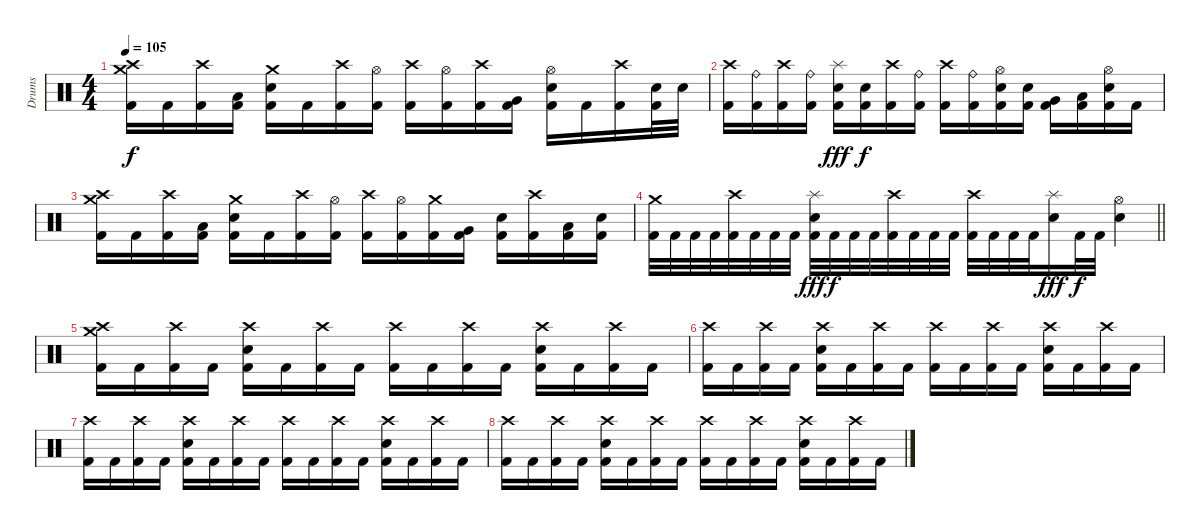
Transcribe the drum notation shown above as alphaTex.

\track ("Drums" "Drums") {instrument percussion}
\staff {score}
\articulation defaults
\ts (4 4)
\section ("" "")
\tempo 105
\clef neutral
\ks c
("Crash high (hit)" "Crash medium (hit)" "Kick (hit) 2").16{dy f} "Kick (hit) 2".16 ("Crash high (hit)" "Kick (hit) 2").16 ("Low Tom (hit)" "Kick (hit) 2").16 ("Crash medium (hit)" "Electric Snare (hit)" "Kick (hit) 2").16 "Kick (hit) 2".16 ("Crash high (hit)" "Kick (hit) 2").16 ("Hi-Hat (open)" "Kick (hit) 2").16 ("Crash high (hit)" "Kick (hit) 2").16 ("Hi-Hat (open)" "Kick (hit) 2").16 ("Crash high (hit)" "Kick (hit) 2").16 ("Very Low Tom (hit)" "Kick (hit) 2").16 ("Hi-Hat (open)" "Electric Snare (hit)" "Kick (hit) 2").16 "Kick (hit) 2".16 ("Crash high (hit)" "Kick (hit) 2").16 ("Electric Snare (hit)" "Kick (hit) 2").32 "Electric Snare (hit)".32 |
("Crash high (hit)" "Kick (hit) 2").16 ("Ride (bell)" "Kick (hit) 2").16 ("Crash high (hit)" "Kick (hit) 2").16 ("Ride (bell)" "Kick (hit) 2").16 ("Splash (hit)" "Electric Snare (hit)" "Kick (hit) 2").16{dy fff} ("Electric Snare (hit)" "Kick (hit) 2").16{dy f} ("Crash high (hit)" "Kick (hit) 2").16 ("Ride (bell)" "Kick (hit) 2").16 ("Crash high (hit)" "Kick (hit) 2").16 ("Ride (bell)" "Kick (hit) 2").16 ("Hi-Hat (open)" "Electric Snare (hit)" "Kick (hit) 2").16 ("Electric Snare (hit)" "Kick (hit) 2").16 ("Very Low Tom (hit)" "Kick (hit) 2").16 ("Low Floor Tom (hit)" "Kick (hit) 2").16 ("Hi-Hat (open)" "Electric Snare (hit)" "Kick (hit) 2").16 "Kick (hit) 2".16 |
("Crash high (hit)" "Crash medium (hit)" "Kick (hit) 2").16 "Kick (hit) 2".16 ("Crash high (hit)" "Kick (hit) 2").16 ("Low Tom (hit)" "Kick (hit) 2").16 ("Crash medium (hit)" "Electric Snare (hit)" "Kick (hit) 2").16 "Kick (hit) 2".16 ("Crash high (hit)" "Kick (hit) 2").16 ("Hi-Hat (open)" "Kick (hit) 2").16 ("Crash high (hit)" "Kick (hit) 2").16 ("Hi-Hat (open)" "Kick (hit) 2").16 ("Crash medium (hit)" "Kick (hit) 2").16 ("Very Low Tom (hit)" "Kick (hit) 2").16 ("Electric Snare (hit)" "Kick (hit) 2").16 ("Crash high (hit)" "Kick (hit) 2").16 ("Low Floor Tom (hit)" "Kick (hit) 2").16 ("Electric Snare (hit)" "Kick (hit) 2").16 |
\barLineRight lightlight
("Crash medium (hit)" "Kick (hit) 2").32 "Kick (hit) 2".32 "Kick (hit) 2".32 "Kick (hit) 2".32 ("Crash high (hit)" "Kick (hit) 2").32 "Kick (hit) 2".32 "Kick (hit) 2".32 "Kick (hit) 2".32 ("Splash (hit)" "Electric Snare (hit)" "Kick (hit) 2").32{dy fff} "Kick (hit) 2".32{dy f} "Kick (hit) 2".32 "Kick (hit) 2".32 ("Crash high (hit)" "Kick (hit) 2").32 "Kick (hit) 2".32 "Kick (hit) 2".32 "Kick (hit) 2".32 ("Crash high (hit)" "Kick (hit) 2").32 "Kick (hit) 2".32 "Kick (hit) 2".32 "Kick (hit) 2".32 ("Splash (hit)" "Electric Snare (hit)").16{dy fff} "Kick (hit) 2".32{dy f} "Kick (hit) 2".32 ("Hi-Hat (open)" "Electric Snare (hit)").4 |
\section ("" "")
("Crash high (hit)" "Crash medium (hit)" "Kick (hit) 2").16 "Kick (hit) 2".16 ("Crash high (hit)" "Kick (hit) 2").16 "Kick (hit) 2".16 ("Crash high (hit)" "Electric Snare (hit)" "Kick (hit) 2").16 "Kick (hit) 2".16 ("Crash high (hit)" "Kick (hit) 2").16 "Kick (hit) 2".16 ("Crash high (hit)" "Kick (hit) 2").16 "Kick (hit) 2".16 ("Crash high (hit)" "Kick (hit) 2").16 "Kick (hit) 2".16 ("Crash high (hit)" "Electric Snare (hit)" "Kick (hit) 2").16 "Kick (hit) 2".16 ("Crash high (hit)" "Kick (hit) 2").16 "Kick (hit) 2".16 |
("Crash high (hit)" "Kick (hit) 2").16 "Kick (hit) 2".16 ("Crash high (hit)" "Kick (hit) 2").16 "Kick (hit) 2".16 ("Crash high (hit)" "Electric Snare (hit)" "Kick (hit) 2").16 "Kick (hit) 2".16 ("Crash high (hit)" "Kick (hit) 2").16 "Kick (hit) 2".16 ("Crash high (hit)" "Kick (hit) 2").16 "Kick (hit) 2".16 ("Crash high (hit)" "Kick (hit) 2").16 "Kick (hit) 2".16 ("Crash high (hit)" "Electric Snare (hit)" "Kick (hit) 2").16 "Kick (hit) 2".16 ("Crash high (hit)" "Kick (hit) 2").16 "Kick (hit) 2".16 |
("Crash high (hit)" "Kick (hit) 2").16 "Kick (hit) 2".16 ("Crash high (hit)" "Kick (hit) 2").16 "Kick (hit) 2".16 ("Crash high (hit)" "Electric Snare (hit)" "Kick (hit) 2").16 "Kick (hit) 2".16 ("Crash high (hit)" "Kick (hit) 2").16 "Kick (hit) 2".16 ("Crash high (hit)" "Kick (hit) 2").16 "Kick (hit) 2".16 ("Crash high (hit)" "Kick (hit) 2").16 "Kick (hit) 2".16 ("Crash high (hit)" "Electric Snare (hit)" "Kick (hit) 2").16 "Kick (hit) 2".16 ("Crash high (hit)" "Kick (hit) 2").16 "Kick (hit) 2".16 |
("Crash high (hit)" "Kick (hit) 2").16 "Kick (hit) 2".16 ("Crash high (hit)" "Kick (hit) 2").16 "Kick (hit) 2".16 ("Crash high (hit)" "Electric Snare (hit)" "Kick (hit) 2").16 "Kick (hit) 2".16 ("Crash high (hit)" "Kick (hit) 2").16 "Kick (hit) 2".16 ("Crash high (hit)" "Kick (hit) 2").16 "Kick (hit) 2".16 ("Crash high (hit)" "Kick (hit) 2").16 "Kick (hit) 2".16 ("Crash high (hit)" "Electric Snare (hit)" "Kick (hit) 2").16 "Kick (hit) 2".16 ("Crash high (hit)" "Kick (hit) 2").16 "Kick (hit) 2".16
